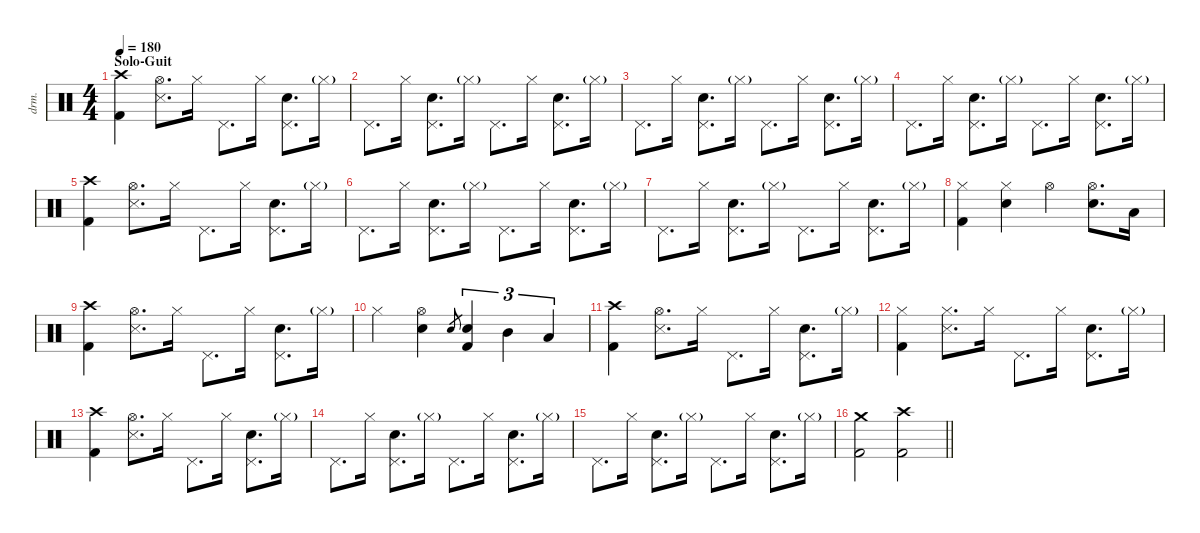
\defaultSystemsLayout 4
\hideDynamics
\bracketExtendMode nobrackets
\otherSystemsTrackNameOrientation horizontal
\track ("Drums" "drm.") {instrument percussion}
\staff {score}
\articulation defaults
\ts (4 4)
\section ("" "Solo-Guit")
\tempo 180
\clef neutral
\ks c
("Crash high (hit)" "Kick (hit) 2").4{dy f} ("Hi-Hat (open)" "Snare (side stick) 3").8{d} "Hi-Hat (closed)".16 "Pedal Hi-Hat (hit)".8{d} "Hi-Hat (closed)".16 ("Pedal Hi-Hat (hit)" "Snare (hit) 2").8{d} "Hi-Hat (closed)"{g}.16{dy mf} |
"Pedal Hi-Hat (hit)".8{d dy f} "Hi-Hat (closed)".16 ("Pedal Hi-Hat (hit)" "Snare (hit) 2").8{d} "Hi-Hat (closed)"{g}.16{dy mf} "Pedal Hi-Hat (hit)".8{d dy f} "Hi-Hat (closed)".16 ("Pedal Hi-Hat (hit)" "Snare (hit) 2").8{d} "Hi-Hat (closed)"{g}.16{dy mf} |
"Pedal Hi-Hat (hit)".8{d dy f} "Hi-Hat (closed)".16 ("Pedal Hi-Hat (hit)" "Snare (hit) 2").8{d} "Hi-Hat (closed)"{g}.16{dy mf} "Pedal Hi-Hat (hit)".8{d dy f} "Hi-Hat (closed)".16 ("Pedal Hi-Hat (hit)" "Snare (hit) 2").8{d} "Hi-Hat (closed)"{g}.16{dy mf} |
"Pedal Hi-Hat (hit)".8{d dy f} "Hi-Hat (closed)".16 ("Pedal Hi-Hat (hit)" "Snare (hit) 2").8{d} "Hi-Hat (closed)"{g}.16{dy mf} "Pedal Hi-Hat (hit)".8{d dy f} "Hi-Hat (closed)".16 ("Pedal Hi-Hat (hit)" "Snare (hit) 2").8{d} "Hi-Hat (closed)"{g}.16{dy mf} |
("Crash high (hit)" "Kick (hit) 2").4{dy f} ("Hi-Hat (open)" "Snare (side stick) 3").8{d} "Hi-Hat (closed)".16 "Pedal Hi-Hat (hit)".8{d} "Hi-Hat (closed)".16 ("Pedal Hi-Hat (hit)" "Snare (hit) 2").8{d} "Hi-Hat (closed)"{g}.16{dy mf} |
"Pedal Hi-Hat (hit)".8{d dy f} "Hi-Hat (closed)".16 ("Pedal Hi-Hat (hit)" "Snare (hit) 2").8{d} "Hi-Hat (closed)"{g}.16{dy mf} "Pedal Hi-Hat (hit)".8{d dy f} "Hi-Hat (closed)".16 ("Pedal Hi-Hat (hit)" "Snare (hit) 2").8{d} "Hi-Hat (closed)"{g}.16{dy mf} |
"Pedal Hi-Hat (hit)".8{d dy f} "Hi-Hat (closed)".16 ("Pedal Hi-Hat (hit)" "Snare (hit) 2").8{d} "Hi-Hat (closed)"{g}.16{dy mf} "Pedal Hi-Hat (hit)".8{d dy f} "Hi-Hat (closed)".16 ("Pedal Hi-Hat (hit)" "Snare (hit) 2").8{d} "Hi-Hat (closed)"{g}.16{dy mf} |
("Hi-Hat (closed)" "Kick (hit) 2").4{dy f} ("Hi-Hat (closed)" "Snare (hit) 2").4 "Hi-Hat (open)".4 ("Hi-Hat (open)" "Snare (hit) 2").8{d} "Low Tom (hit)".16 |
("Crash high (hit)" "Kick (hit) 2").4 ("Hi-Hat (open)" "Snare (side stick) 3").8{d} "Hi-Hat (closed)".16 "Pedal Hi-Hat (hit)".8{d} "Hi-Hat (closed)".16 ("Pedal Hi-Hat (hit)" "Snare (hit) 2").8{d} "Hi-Hat (closed)"{g}.16{dy mf} |
"Hi-Hat (closed)".4{dy f} ("Hi-Hat (open)" "Snare (hit) 2").4 "Snare (hit) 2".8{gr dy mf} ("Snare (hit) 2" "Kick (hit) 2").4{tu (3 2) dy f} "Mid Tom (hit)".4{tu (3 2)} "Low Tom (hit)".4{tu (3 2)} |
("Crash high (hit)" "Kick (hit) 2").4 ("Hi-Hat (open)" "Snare (side stick) 3").8{d} "Hi-Hat (closed)".16 "Pedal Hi-Hat (hit)".8{d} "Hi-Hat (closed)".16 ("Pedal Hi-Hat (hit)" "Snare (hit) 2").8{d} "Hi-Hat (closed)"{g}.16{dy mf} |
("Hi-Hat (closed)" "Kick (hit) 2").4{dy f} ("Hi-Hat (closed)" "Snare (side stick) 3").8{d} "Hi-Hat (closed)".16 "Pedal Hi-Hat (hit)".8{d} "Hi-Hat (closed)".16 ("Pedal Hi-Hat (hit)" "Snare (hit) 2").8{d} "Hi-Hat (closed)"{g}.16{dy mf} |
("Crash high (hit)" "Kick (hit) 2").4{dy f} ("Hi-Hat (open)" "Snare (side stick) 3").8{d} "Hi-Hat (closed)".16 "Pedal Hi-Hat (hit)".8{d} "Hi-Hat (closed)".16 ("Pedal Hi-Hat (hit)" "Snare (hit) 2").8{d} "Hi-Hat (closed)"{g}.16{dy mf} |
"Pedal Hi-Hat (hit)".8{d dy f} "Hi-Hat (closed)".16 ("Pedal Hi-Hat (hit)" "Snare (hit) 2").8{d} "Hi-Hat (closed)"{g}.16{dy mf} "Pedal Hi-Hat (hit)".8{d dy f} "Hi-Hat (closed)".16 ("Pedal Hi-Hat (hit)" "Snare (hit) 2").8{d} "Hi-Hat (closed)"{g}.16{dy mf} |
"Pedal Hi-Hat (hit)".8{d dy f} "Hi-Hat (closed)".16 ("Pedal Hi-Hat (hit)" "Snare (hit) 2").8{d} "Hi-Hat (closed)"{g}.16{dy mf} "Pedal Hi-Hat (hit)".8{d dy f} "Hi-Hat (closed)".16 ("Pedal Hi-Hat (hit)" "Snare (hit) 2").8{d} "Hi-Hat (closed)"{g}.16{dy mf} |
\barLineRight lightlight
("Crash medium (hit)" "Kick (hit) 2").2{dy f} ("Crash high (hit)" "Kick (hit) 2").2
